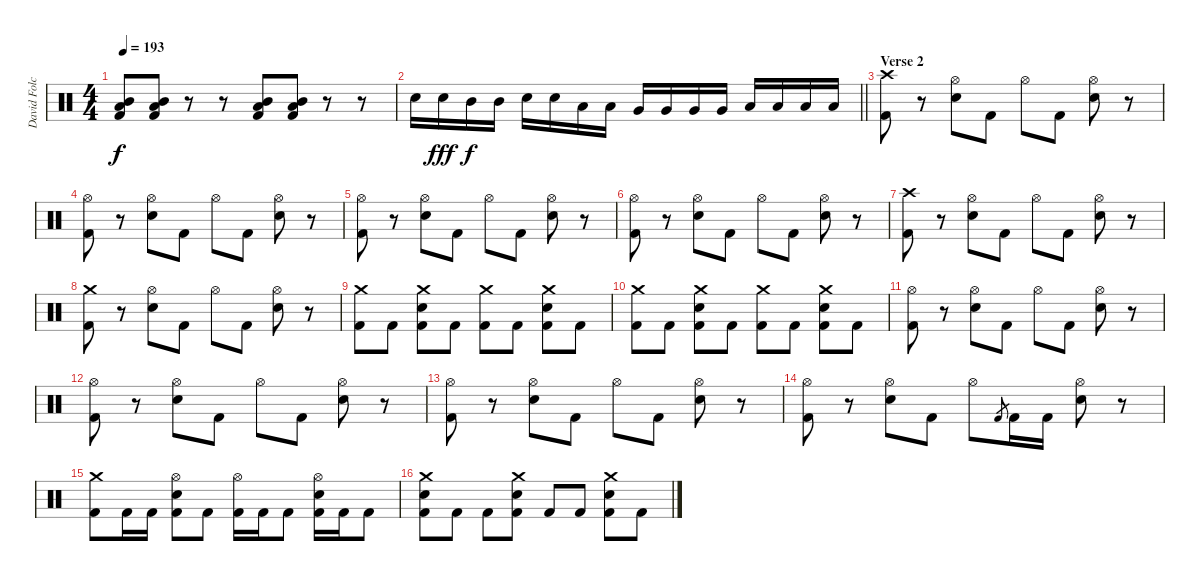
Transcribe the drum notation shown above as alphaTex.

\track ("David Folchitto (Drums)" "David Folc") {instrument percussion}
\staff {score}
\articulation defaults
\ts (4 4)
\tempo 193
\clef neutral
\ks c
("Mid Tom (hit)" "Low Tom (hit)" "Kick (hit) 2").8{dy f} ("Mid Tom (hit)" "Low Tom (hit)" "Kick (hit) 2").8 r.8 r.8 ("Mid Tom (hit)" "Low Tom (hit)" "Kick (hit) 2").8 ("Mid Tom (hit)" "Low Tom (hit)" "Kick (hit) 2").8 r.8 r.8 |
\barLineRight lightlight "Snare (hit) 2".16 "Snare (hit) 2".16{dy fff} "Mid Tom (hit)".16{dy f} "Mid Tom (hit)".16 "Snare (hit) 2".16 "Snare (hit) 2".16 "Low Tom (hit)".16 "Low Tom (hit)".16 "Very Low Tom (hit)".16 "Very Low Tom (hit)".16 "Very Low Tom (hit)".16 "Very Low Tom (hit)".16 "Low Floor Tom (hit)".16 "Low Floor Tom (hit)".16 "Low Floor Tom (hit)".16 "Low Floor Tom (hit)".16
|
\section ("" "Verse 2")
("Crash high (hit)" "Kick (hit) 2").8 r.8 ("Hi-Hat (open)" "Snare (hit) 2").8 "Kick (hit) 2".8 "Hi-Hat (open)".8 "Kick (hit) 2".8 ("Hi-Hat (open)" "Snare (hit) 2").8 r.8 |
("Hi-Hat (open)" "Kick (hit) 2").8 r.8 ("Hi-Hat (open)" "Snare (hit) 2").8 "Kick (hit) 2".8 "Hi-Hat (open)".8 "Kick (hit) 2".8 ("Hi-Hat (open)" "Snare (hit) 2").8 r.8 |
("Hi-Hat (open)" "Kick (hit) 2").8 r.8 ("Hi-Hat (open)" "Snare (hit) 2").8 "Kick (hit) 2".8 "Hi-Hat (open)".8 "Kick (hit) 2".8 ("Hi-Hat (open)" "Snare (hit) 2").8 r.8 |
("Hi-Hat (open)" "Kick (hit) 2").8 r.8 ("Hi-Hat (open)" "Snare (hit) 2").8 "Kick (hit) 2".8 "Hi-Hat (open)".8 "Kick (hit) 2".8 ("Hi-Hat (open)" "Snare (hit) 2").8 r.8 |
("Crash high (hit)" "Kick (hit) 2").8 r.8 ("Hi-Hat (open)" "Snare (hit) 2").8 "Kick (hit) 2".8 "Hi-Hat (open)".8 "Kick (hit) 2".8 ("Hi-Hat (open)" "Snare (hit) 2").8 r.8 |
("Crash medium (hit)" "Kick (hit) 2").8 r.8 ("Hi-Hat (open)" "Snare (hit) 2").8 "Kick (hit) 2".8 "Hi-Hat (open)".8 "Kick (hit) 2".8 ("Hi-Hat (open)" "Snare (hit) 2").8 r.8 |
("Crash medium (hit)" "Kick (hit) 2").8 "Kick (hit) 2".8 ("Crash medium (hit)" "Snare (hit) 2" "Kick (hit) 2").8 "Kick (hit) 2".8 ("Crash medium (hit)" "Kick (hit) 2").8 "Kick (hit) 2".8 ("Crash medium (hit)" "Snare (hit) 2" "Kick (hit) 2").8 "Kick (hit) 2".8 |
("Crash medium (hit)" "Kick (hit) 2").8 "Kick (hit) 2".8 ("Crash medium (hit)" "Snare (hit) 2" "Kick (hit) 2").8 "Kick (hit) 2".8 ("Crash medium (hit)" "Kick (hit) 2").8 "Kick (hit) 2".8 ("Crash medium (hit)" "Snare (hit) 2" "Kick (hit) 2").8 "Kick (hit) 2".8 |
("Hi-Hat (open)" "Kick (hit) 2").8 r.8 ("Hi-Hat (open)" "Snare (hit) 2").8 "Kick (hit) 2".8 "Hi-Hat (open)".8 "Kick (hit) 2".8 ("Hi-Hat (open)" "Snare (hit) 2").8 r.8 |
("Hi-Hat (open)" "Kick (hit) 2").8 r.8 ("Hi-Hat (open)" "Snare (hit) 2").8 "Kick (hit) 2".8 "Hi-Hat (open)".8 "Kick (hit) 2".8 ("Hi-Hat (open)" "Snare (hit) 2").8 r.8 |
("Hi-Hat (open)" "Kick (hit) 2").8 r.8 ("Hi-Hat (open)" "Snare (hit) 2").8 "Kick (hit) 2".8 "Hi-Hat (open)".8 "Kick (hit) 2".8 ("Hi-Hat (open)" "Snare (hit) 2").8 r.8 |
("Hi-Hat (open)" "Kick (hit) 2").8 r.8 ("Hi-Hat (open)" "Snare (hit) 2").8 "Kick (hit) 2".8 "Hi-Hat (open)".8 "Kick (hit) 2".8{gr} "Kick (hit) 2".16 "Kick (hit) 2".16 ("Hi-Hat (open)" "Snare (hit) 2").8 r.8 |
("Crash medium (hit)" "Kick (hit) 2").8 "Kick (hit) 2".16 "Kick (hit) 2".16 ("Hi-Hat (open)" "Snare (hit) 2" "Kick (hit) 2").8 "Kick (hit) 2".8 ("Hi-Hat (open)" "Kick (hit) 2").16 "Kick (hit) 2".16 "Kick (hit) 2".8 ("Hi-Hat (open)" "Snare (hit) 2" "Kick (hit) 2").16 "Kick (hit) 2".16 "Kick (hit) 2".8 |
("Crash medium (hit)" "Snare (hit) 2" "Kick (hit) 2").8 "Kick (hit) 2".8 "Kick (hit) 2".8 ("Crash medium (hit)" "Snare (hit) 2" "Kick (hit) 2").8 "Kick (hit) 2".8 "Kick (hit) 2".8 ("Crash medium (hit)" "Snare (hit) 2" "Kick (hit) 2").8 "Kick (hit) 2".8
